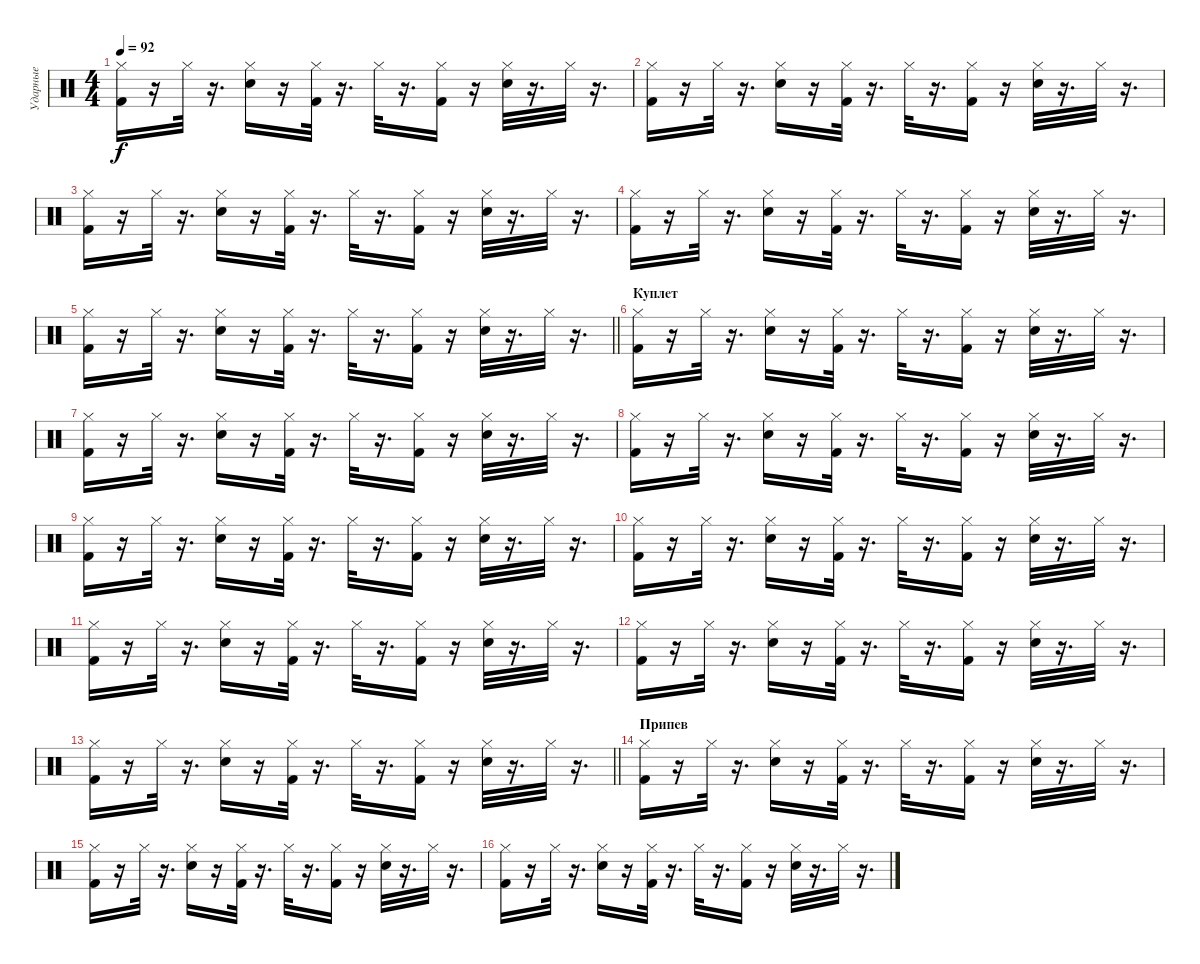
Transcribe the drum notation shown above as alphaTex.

\track ("Ударные" "Ударные") {instrument percussion}
\staff {score}
\articulation defaults
\ts (4 4)
\tempo 92
\clef neutral
\ks c
("Kick (hit) 2" "Hi-Hat (closed)").16{dy f} r.16 "Hi-Hat (closed)".32 r.16{d} ("Electric Snare (hit)" "Hi-Hat (closed)").16 r.16 ("Kick (hit) 2" "Hi-Hat (closed)").32 r.16{d} "Hi-Hat (closed)".32 r.16{d} ("Kick (hit) 2" "Hi-Hat (closed)").16 r.16 ("Electric Snare (hit)" "Hi-Hat (closed)").32 r.16{d} "Hi-Hat (closed)".32 r.16{d} |
("Kick (hit) 2" "Hi-Hat (closed)").16 r.16 "Hi-Hat (closed)".32 r.16{d} ("Electric Snare (hit)" "Hi-Hat (closed)").16 r.16 ("Kick (hit) 2" "Hi-Hat (closed)").32 r.16{d} "Hi-Hat (closed)".32 r.16{d} ("Kick (hit) 2" "Hi-Hat (closed)").16 r.16 ("Electric Snare (hit)" "Hi-Hat (closed)").32 r.16{d} "Hi-Hat (closed)".32 r.16{d} |
("Kick (hit) 2" "Hi-Hat (closed)").16 r.16 "Hi-Hat (closed)".32 r.16{d} ("Electric Snare (hit)" "Hi-Hat (closed)").16 r.16 ("Kick (hit) 2" "Hi-Hat (closed)").32 r.16{d} "Hi-Hat (closed)".32 r.16{d} ("Kick (hit) 2" "Hi-Hat (closed)").16 r.16 ("Electric Snare (hit)" "Hi-Hat (closed)").32 r.16{d} "Hi-Hat (closed)".32 r.16{d} |
("Kick (hit) 2" "Hi-Hat (closed)").16 r.16 "Hi-Hat (closed)".32 r.16{d} ("Electric Snare (hit)" "Hi-Hat (closed)").16 r.16 ("Kick (hit) 2" "Hi-Hat (closed)").32 r.16{d} "Hi-Hat (closed)".32 r.16{d} ("Kick (hit) 2" "Hi-Hat (closed)").16 r.16 ("Electric Snare (hit)" "Hi-Hat (closed)").32 r.16{d} "Hi-Hat (closed)".32 r.16{d} |
\barLineRight lightlight
("Kick (hit) 2" "Hi-Hat (closed)").16 r.16 "Hi-Hat (closed)".32 r.16{d} ("Electric Snare (hit)" "Hi-Hat (closed)").16 r.16 ("Kick (hit) 2" "Hi-Hat (closed)").32 r.16{d} "Hi-Hat (closed)".32 r.16{d} ("Kick (hit) 2" "Hi-Hat (closed)").16 r.16 ("Electric Snare (hit)" "Hi-Hat (closed)").32 r.16{d} "Hi-Hat (closed)".32 r.16{d} |
\section ("" "Куплет")
("Kick (hit) 2" "Hi-Hat (closed)").16 r.16 "Hi-Hat (closed)".32 r.16{d} ("Electric Snare (hit)" "Hi-Hat (closed)").16 r.16 ("Kick (hit) 2" "Hi-Hat (closed)").32 r.16{d} "Hi-Hat (closed)".32 r.16{d} ("Kick (hit) 2" "Hi-Hat (closed)").16 r.16 ("Electric Snare (hit)" "Hi-Hat (closed)").32 r.16{d} "Hi-Hat (closed)".32 r.16{d} |
("Kick (hit) 2" "Hi-Hat (closed)").16 r.16 "Hi-Hat (closed)".32 r.16{d} ("Electric Snare (hit)" "Hi-Hat (closed)").16 r.16 ("Kick (hit) 2" "Hi-Hat (closed)").32 r.16{d} "Hi-Hat (closed)".32 r.16{d} ("Kick (hit) 2" "Hi-Hat (closed)").16 r.16 ("Electric Snare (hit)" "Hi-Hat (closed)").32 r.16{d} "Hi-Hat (closed)".32 r.16{d} |
("Kick (hit) 2" "Hi-Hat (closed)").16 r.16 "Hi-Hat (closed)".32 r.16{d} ("Electric Snare (hit)" "Hi-Hat (closed)").16 r.16 ("Kick (hit) 2" "Hi-Hat (closed)").32 r.16{d} "Hi-Hat (closed)".32 r.16{d} ("Kick (hit) 2" "Hi-Hat (closed)").16 r.16 ("Electric Snare (hit)" "Hi-Hat (closed)").32 r.16{d} "Hi-Hat (closed)".32 r.16{d} |
("Kick (hit) 2" "Hi-Hat (closed)").16 r.16 "Hi-Hat (closed)".32 r.16{d} ("Electric Snare (hit)" "Hi-Hat (closed)").16 r.16 ("Kick (hit) 2" "Hi-Hat (closed)").32 r.16{d} "Hi-Hat (closed)".32 r.16{d} ("Kick (hit) 2" "Hi-Hat (closed)").16 r.16 ("Electric Snare (hit)" "Hi-Hat (closed)").32 r.16{d} "Hi-Hat (closed)".32 r.16{d} |
("Kick (hit) 2" "Hi-Hat (closed)").16 r.16 "Hi-Hat (closed)".32 r.16{d} ("Electric Snare (hit)" "Hi-Hat (closed)").16 r.16 ("Kick (hit) 2" "Hi-Hat (closed)").32 r.16{d} "Hi-Hat (closed)".32 r.16{d} ("Kick (hit) 2" "Hi-Hat (closed)").16 r.16 ("Electric Snare (hit)" "Hi-Hat (closed)").32 r.16{d} "Hi-Hat (closed)".32 r.16{d} |
("Kick (hit) 2" "Hi-Hat (closed)").16 r.16 "Hi-Hat (closed)".32 r.16{d} ("Electric Snare (hit)" "Hi-Hat (closed)").16 r.16 ("Kick (hit) 2" "Hi-Hat (closed)").32 r.16{d} "Hi-Hat (closed)".32 r.16{d} ("Kick (hit) 2" "Hi-Hat (closed)").16 r.16 ("Electric Snare (hit)" "Hi-Hat (closed)").32 r.16{d} "Hi-Hat (closed)".32 r.16{d} |
("Kick (hit) 2" "Hi-Hat (closed)").16 r.16 "Hi-Hat (closed)".32 r.16{d} ("Electric Snare (hit)" "Hi-Hat (closed)").16 r.16 ("Kick (hit) 2" "Hi-Hat (closed)").32 r.16{d} "Hi-Hat (closed)".32 r.16{d} ("Kick (hit) 2" "Hi-Hat (closed)").16 r.16 ("Electric Snare (hit)" "Hi-Hat (closed)").32 r.16{d} "Hi-Hat (closed)".32 r.16{d} |
\barLineRight lightlight
("Kick (hit) 2" "Hi-Hat (closed)").16 r.16 "Hi-Hat (closed)".32 r.16{d} ("Electric Snare (hit)" "Hi-Hat (closed)").16 r.16 ("Kick (hit) 2" "Hi-Hat (closed)").32 r.16{d} "Hi-Hat (closed)".32 r.16{d} ("Kick (hit) 2" "Hi-Hat (closed)").16 r.16 ("Electric Snare (hit)" "Hi-Hat (closed)").32 r.16{d} "Hi-Hat (closed)".32 r.16{d} |
\section ("" "Припев")
("Kick (hit) 2" "Hi-Hat (closed)").16 r.16 "Hi-Hat (closed)".32 r.16{d} ("Electric Snare (hit)" "Hi-Hat (closed)").16 r.16 ("Kick (hit) 2" "Hi-Hat (closed)").32 r.16{d} "Hi-Hat (closed)".32 r.16{d} ("Kick (hit) 2" "Hi-Hat (closed)").16 r.16 ("Electric Snare (hit)" "Hi-Hat (closed)").32 r.16{d} "Hi-Hat (closed)".32 r.16{d} |
("Kick (hit) 2" "Hi-Hat (closed)").16 r.16 "Hi-Hat (closed)".32 r.16{d} ("Electric Snare (hit)" "Hi-Hat (closed)").16 r.16 ("Kick (hit) 2" "Hi-Hat (closed)").32 r.16{d} "Hi-Hat (closed)".32 r.16{d} ("Kick (hit) 2" "Hi-Hat (closed)").16 r.16 ("Electric Snare (hit)" "Hi-Hat (closed)").32 r.16{d} "Hi-Hat (closed)".32 r.16{d} |
("Kick (hit) 2" "Hi-Hat (closed)").16 r.16 "Hi-Hat (closed)".32 r.16{d} ("Electric Snare (hit)" "Hi-Hat (closed)").16 r.16 ("Kick (hit) 2" "Hi-Hat (closed)").32 r.16{d} "Hi-Hat (closed)".32 r.16{d} ("Kick (hit) 2" "Hi-Hat (closed)").16 r.16 ("Electric Snare (hit)" "Hi-Hat (closed)").32 r.16{d} "Hi-Hat (closed)".32 r.16{d}
